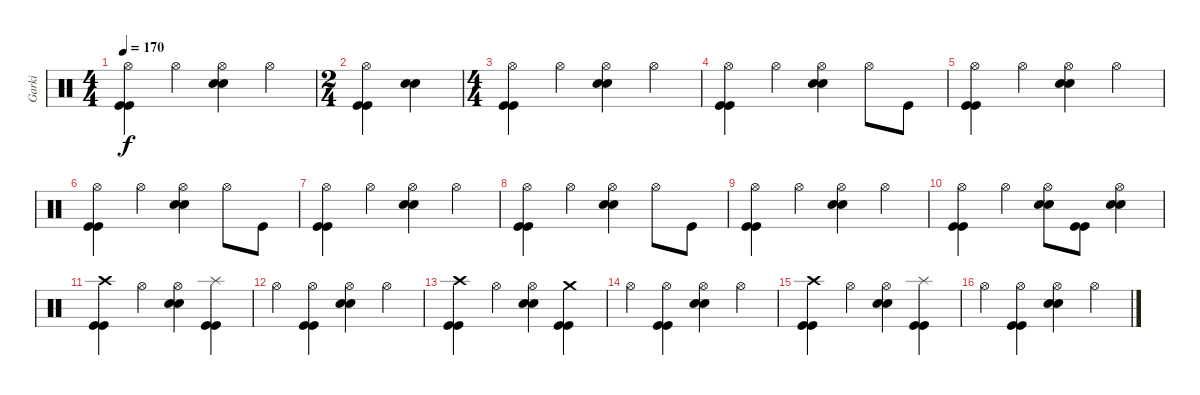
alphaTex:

\track ("Garki" "Garki") {instrument percussion}
\staff {score}
\articulation defaults
\ts (4 4)
\tempo 170
\clef neutral
\ks c
("Kick (hit)" "Kick (hit)" "Hi-Hat (open)").4{dy f} "Hi-Hat (open)".4 ("Electric Snare (hit)" "Electric Snare (hit)" "Hi-Hat (open)").4 "Hi-Hat (open)".4 |
\ts (2 4)
("Kick (hit)" "Kick (hit)" "Hi-Hat (open)").4 ("Electric Snare (hit)" "Electric Snare (hit)").4 |
\ts (4 4)
("Kick (hit)" "Kick (hit)" "Hi-Hat (open)").4 "Hi-Hat (open)".4 ("Electric Snare (hit)" "Electric Snare (hit)" "Hi-Hat (open)").4 "Hi-Hat (open)".4 |
("Kick (hit)" "Kick (hit)" "Hi-Hat (open)").4 "Hi-Hat (open)".4 ("Electric Snare (hit)" "Electric Snare (hit)" "Hi-Hat (open)").4 "Hi-Hat (open)".8 "Kick (hit)".8 |
("Kick (hit)" "Kick (hit)" "Hi-Hat (open)").4 "Hi-Hat (open)".4 ("Electric Snare (hit)" "Electric Snare (hit)" "Hi-Hat (open)").4 "Hi-Hat (open)".4 |
("Kick (hit)" "Kick (hit)" "Hi-Hat (open)").4 "Hi-Hat (open)".4 ("Electric Snare (hit)" "Electric Snare (hit)" "Hi-Hat (open)").4 "Hi-Hat (open)".8 "Kick (hit)".8 |
("Kick (hit)" "Kick (hit)" "Hi-Hat (open)").4 "Hi-Hat (open)".4 ("Electric Snare (hit)" "Electric Snare (hit)" "Hi-Hat (open)").4 "Hi-Hat (open)".4 |
("Kick (hit)" "Kick (hit)" "Hi-Hat (open)").4 "Hi-Hat (open)".4 ("Electric Snare (hit)" "Electric Snare (hit)" "Hi-Hat (open)").4 "Hi-Hat (open)".8 "Kick (hit)".8 |
("Kick (hit)" "Kick (hit)" "Hi-Hat (open)").4 "Hi-Hat (open)".4 ("Electric Snare (hit)" "Electric Snare (hit)" "Hi-Hat (open)").4 "Hi-Hat (open)".4 |
("Kick (hit)" "Kick (hit)" "Hi-Hat (open)").4 "Hi-Hat (open)".4 ("Electric Snare (hit)" "Electric Snare (hit)" "Hi-Hat (open)").8 ("Kick (hit)" "Kick (hit)").8 ("Electric Snare (hit)" "Electric Snare (hit)" "Hi-Hat (open)").4 |
("Kick (hit)" "Kick (hit)" "Crash high (hit)").4 "Hi-Hat (open)".4 ("Electric Snare (hit)" "Electric Snare (hit)" "Hi-Hat (open)").4 ("Kick (hit)" "Kick (hit)" "Splash (hit)").4 |
"Hi-Hat (open)".4 ("Kick (hit)" "Kick (hit)" "Hi-Hat (open)").4 ("Electric Snare (hit)" "Electric Snare (hit)" "Hi-Hat (open)").4 "Hi-Hat (open)".4 |
("Kick (hit)" "Kick (hit)" "Crash high (hit)").4 "Hi-Hat (open)".4 ("Electric Snare (hit)" "Electric Snare (hit)" "Hi-Hat (open)").4 ("Kick (hit)" "Kick (hit)" "Crash medium (hit)").4 |
"Hi-Hat (open)".4 ("Kick (hit)" "Kick (hit)" "Hi-Hat (open)").4 ("Electric Snare (hit)" "Electric Snare (hit)" "Hi-Hat (open)").4 "Hi-Hat (open)".4 |
("Kick (hit)" "Kick (hit)" "Crash high (hit)").4 "Hi-Hat (open)".4 ("Electric Snare (hit)" "Electric Snare (hit)" "Hi-Hat (open)").4 ("Kick (hit)" "Kick (hit)" "Splash (hit)").4 |
"Hi-Hat (open)".4 ("Kick (hit)" "Kick (hit)" "Hi-Hat (open)").4 ("Electric Snare (hit)" "Electric Snare (hit)" "Hi-Hat (open)").4 "Hi-Hat (open)".4
